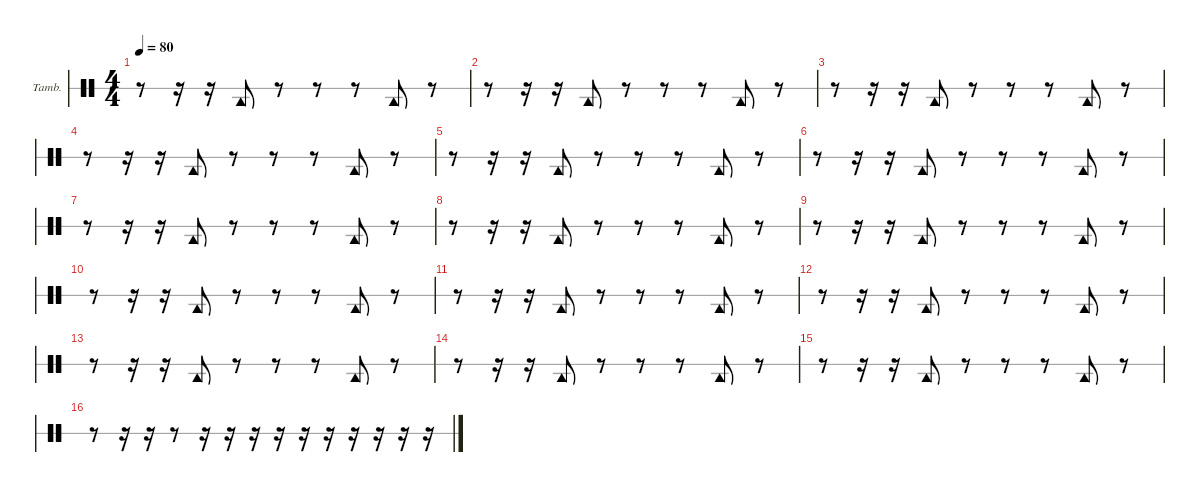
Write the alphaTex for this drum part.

\hideDynamics
\bracketExtendMode nobrackets
\firstSystemTrackNameOrientation horizontal
\otherSystemsTrackNameOrientation horizontal
\track ("Tambourine" "Tamb.") {instrument percussion}
\staff {score 1}
\articulation defaults
\ts (4 4)
\tempo 80
\clef neutral
\ks c
r.8{dy p} r.16 r.16 "Tambourine (hit)".8 r.8 r.8 r.8 "Tambourine (hit)".8 r.8 |
r.8 r.16 r.16 "Tambourine (hit)".8 r.8 r.8 r.8 "Tambourine (hit)".8 r.8 |
r.8 r.16 r.16 "Tambourine (hit)".8 r.8 r.8 r.8 "Tambourine (hit)".8 r.8 |
r.8 r.16 r.16 "Tambourine (hit)".8 r.8 r.8 r.8 "Tambourine (hit)".8 r.8 |
r.8 r.16 r.16 "Tambourine (hit)".8 r.8 r.8 r.8 "Tambourine (hit)".8 r.8 |
r.8 r.16 r.16 "Tambourine (hit)".8 r.8 r.8 r.8 "Tambourine (hit)".8 r.8 |
r.8 r.16 r.16 "Tambourine (hit)".8 r.8 r.8 r.8 "Tambourine (hit)".8 r.8 |
r.8 r.16 r.16 "Tambourine (hit)".8 r.8 r.8 r.8 "Tambourine (hit)".8 r.8 |
r.8 r.16 r.16 "Tambourine (hit)".8 r.8 r.8 r.8 "Tambourine (hit)".8 r.8 |
r.8 r.16 r.16 "Tambourine (hit)".8 r.8 r.8 r.8 "Tambourine (hit)".8 r.8 |
r.8 r.16 r.16 "Tambourine (hit)".8 r.8 r.8 r.8 "Tambourine (hit)".8 r.8 |
r.8 r.16 r.16 "Tambourine (hit)".8 r.8 r.8 r.8 "Tambourine (hit)".8 r.8 |
r.8 r.16 r.16 "Tambourine (hit)".8 r.8 r.8 r.8 "Tambourine (hit)".8 r.8 |
r.8 r.16 r.16 "Tambourine (hit)".8 r.8 r.8 r.8 "Tambourine (hit)".8 r.8 |
r.8 r.16 r.16 "Tambourine (hit)".8 r.8 r.8 r.8 "Tambourine (hit)".8 r.8 |
r.8 r.16 r.16 r.8 r.16 r.16 r.16 r.16 r.16 r.16 r.16 r.16 r.16 r.16
